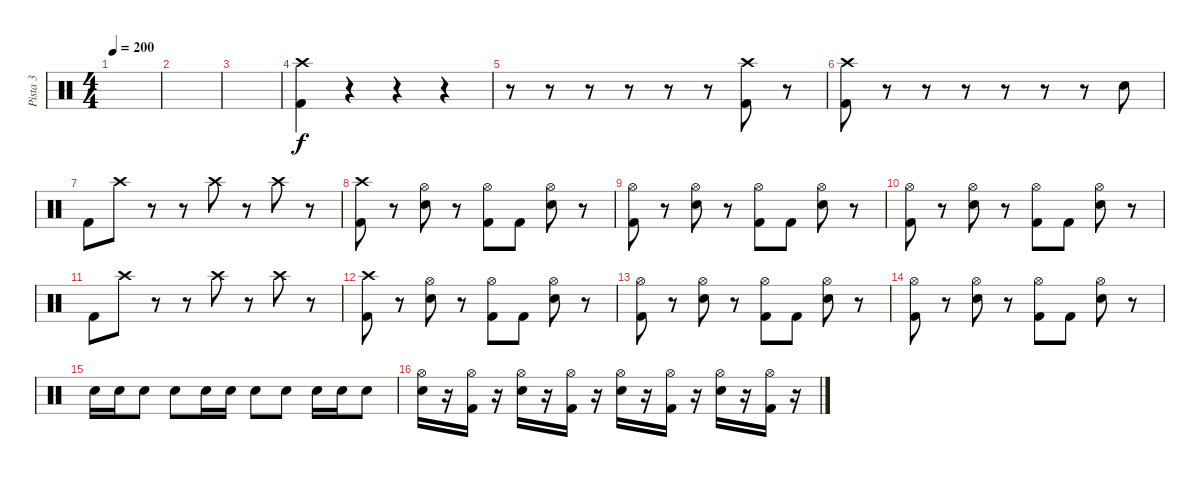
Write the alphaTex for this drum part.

\track ("Pista 3" "Pista 3") {instrument percussion}
\staff {score}
\articulation defaults
\ts (4 4)
\tempo 200
\clef neutral
\ks c
|
|
|
("Crash high (hit)" "Kick (hit) 2").4 r.4 r.4 r.4 |
r.8 r.8 r.8 r.8 r.8 r.8 ("Crash high (hit)" "Kick (hit) 2").8 r.8 |
("Crash high (hit)" "Kick (hit) 2").8 r.8 r.8 r.8 r.8 r.8 r.8 "Electric Snare (hit)".8 |
"Kick (hit) 2".8 "Crash high (hit)".8 r.8 r.8 "Crash high (hit)".8 r.8 "Crash high (hit)".8 r.8 |
("Crash high (hit)" "Kick (hit) 2").8 r.8 ("Hi-Hat (open)" "Electric Snare (hit)").8 r.8 ("Hi-Hat (open)" "Kick (hit) 2").8 "Kick (hit) 2".8 ("Hi-Hat (open)" "Electric Snare (hit)").8 r.8 |
("Hi-Hat (open)" "Kick (hit) 2").8 r.8 ("Hi-Hat (open)" "Electric Snare (hit)").8 r.8 ("Hi-Hat (open)" "Kick (hit) 2").8 "Kick (hit) 2".8 ("Hi-Hat (open)" "Electric Snare (hit)").8 r.8 |
("Hi-Hat (open)" "Kick (hit) 2").8 r.8 ("Hi-Hat (open)" "Electric Snare (hit)").8 r.8 ("Hi-Hat (open)" "Kick (hit) 2").8 "Kick (hit) 2".8 ("Hi-Hat (open)" "Electric Snare (hit)").8 r.8 |
"Kick (hit) 2".8 "Crash high (hit)".8 r.8 r.8 "Crash high (hit)".8 r.8 "Crash high (hit)".8 r.8 |
("Crash high (hit)" "Kick (hit) 2").8 r.8 ("Hi-Hat (open)" "Electric Snare (hit)").8 r.8 ("Hi-Hat (open)" "Kick (hit) 2").8 "Kick (hit) 2".8 ("Hi-Hat (open)" "Electric Snare (hit)").8 r.8 |
("Hi-Hat (open)" "Kick (hit) 2").8 r.8 ("Hi-Hat (open)" "Electric Snare (hit)").8 r.8 ("Hi-Hat (open)" "Kick (hit) 2").8 "Kick (hit) 2".8 ("Hi-Hat (open)" "Electric Snare (hit)").8 r.8 |
("Hi-Hat (open)" "Kick (hit) 2").8 r.8 ("Hi-Hat (open)" "Electric Snare (hit)").8 r.8 ("Hi-Hat (open)" "Kick (hit) 2").8 "Kick (hit) 2".8 ("Hi-Hat (open)" "Electric Snare (hit)").8 r.8 |
"Electric Snare (hit)".16 "Electric Snare (hit)".16 "Electric Snare (hit)".8 "Electric Snare (hit)".8 "Electric Snare (hit)".16 "Electric Snare (hit)".16 "Electric Snare (hit)".8 "Electric Snare (hit)".8 "Electric Snare (hit)".16 "Electric Snare (hit)".16 "Electric Snare (hit)".8 |
("Hi-Hat (open)" "Electric Snare (hit)").16 r.16 ("Hi-Hat (open)" "Kick (hit) 2").16 r.16 ("Hi-Hat (open)" "Electric Snare (hit)").16 r.16 ("Hi-Hat (open)" "Kick (hit) 2").16 r.16 ("Hi-Hat (open)" "Electric Snare (hit)").16 r.16 ("Hi-Hat (open)" "Kick (hit) 2").16 r.16 ("Hi-Hat (open)" "Electric Snare (hit)").16 r.16 ("Hi-Hat (open)" "Kick (hit) 2").16 r.16
